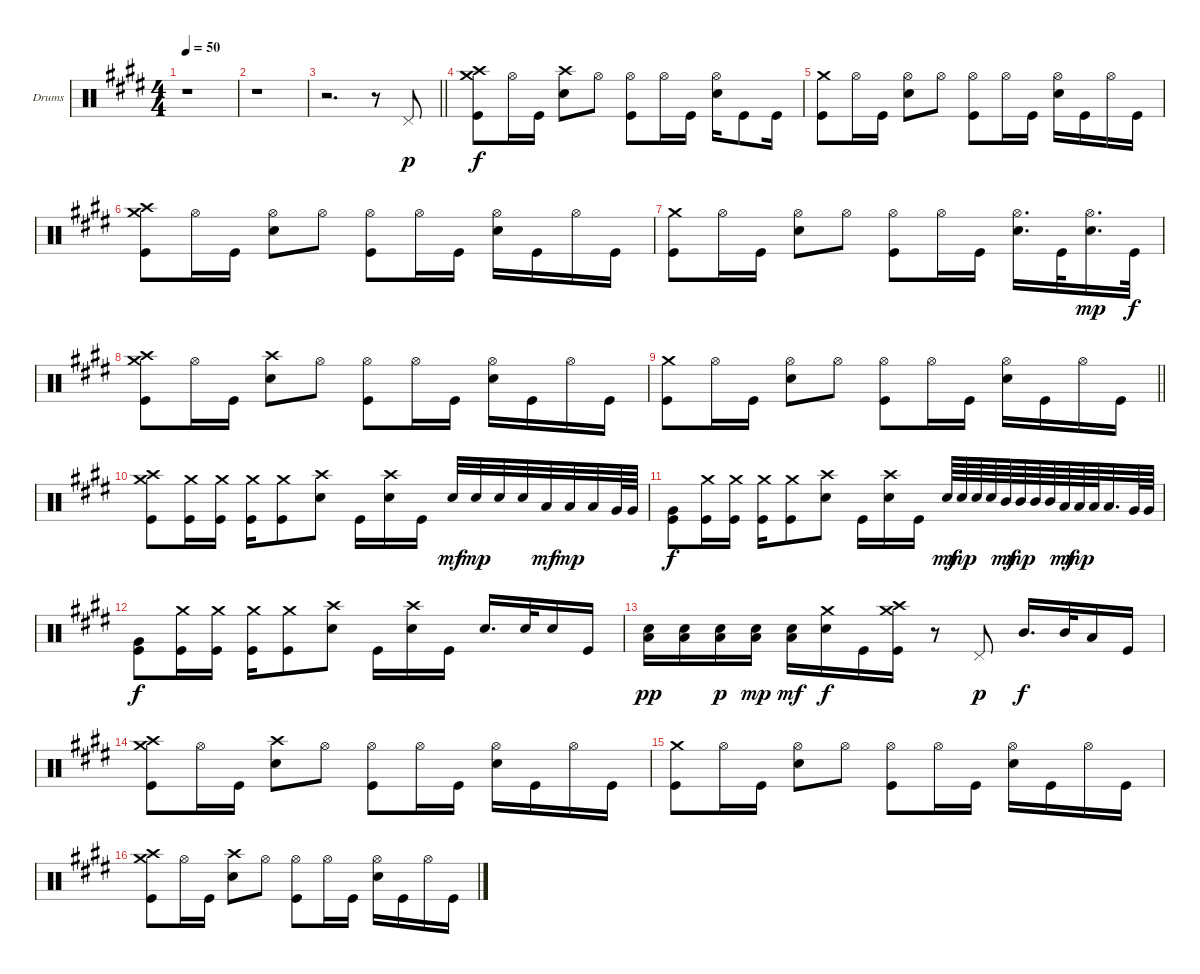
\bracketExtendMode groupsimilarinstruments
\firstSystemTrackNameOrientation horizontal
\otherSystemsTrackNameOrientation horizontal
\track ("Drumkit" "Drums") {instrument percussion}
\staff {score}
\articulation defaults
\ts (4 4)
\tempo 50
\clef neutral
\ks c#minor
r.1{dy p} |
r.1 |
\barLineRight lightlight
r.2{d} r.8 "Pedal Hi-Hat (hit)".8 |
("Crash medium (hit)" "Crash high (hit)" "Kick (hit)").8{dy f} "Hi-Hat (open)".16 "Kick (hit)".16 ("Crash high (hit)" "Snare (hit) 2").8 "Hi-Hat (open)".8 ("Hi-Hat (open)" "Kick (hit)").8 "Hi-Hat (open)".16 "Kick (hit)".16 ("Hi-Hat (open)" "Snare (hit) 2").16 "Kick (hit)".8 "Kick (hit)".16 |
("Crash medium (hit)" "Kick (hit)").8 "Hi-Hat (open)".16 "Kick (hit)".16 ("Hi-Hat (open)" "Snare (hit) 2").8 "Hi-Hat (open)".8 ("Hi-Hat (open)" "Kick (hit)").8 "Hi-Hat (open)".16 "Kick (hit)".16 ("Hi-Hat (open)" "Snare (hit) 2").16 "Kick (hit)".16 "Hi-Hat (open)".16 "Kick (hit)".16 |
("Crash medium (hit)" "Crash high (hit)" "Kick (hit)").8 "Hi-Hat (open)".16 "Kick (hit)".16 ("Hi-Hat (open)" "Snare (hit) 2").8 "Hi-Hat (open)".8 ("Hi-Hat (open)" "Kick (hit)").8 "Hi-Hat (open)".16 "Kick (hit)".16 ("Hi-Hat (open)" "Snare (hit) 2").16 "Kick (hit)".16 "Hi-Hat (open)".16 "Kick (hit)".16 |
("Crash medium (hit)" "Kick (hit)").8 "Hi-Hat (open)".16 "Kick (hit)".16 ("Hi-Hat (open)" "Snare (hit) 2").8 "Hi-Hat (open)".8 ("Hi-Hat (open)" "Kick (hit)").8 "Hi-Hat (open)".16 "Kick (hit)".16 ("Hi-Hat (open)" "Snare (hit) 2").16{d} "Kick (hit)".32 ("Hi-Hat (open)" "Snare (hit) 2").16{d dy mp} "Kick (hit)".32{dy f} |
("Crash medium (hit)" "Crash high (hit)" "Kick (hit)").8 "Hi-Hat (open)".16 "Kick (hit)".16 ("Crash high (hit)" "Snare (hit) 2").8 "Hi-Hat (open)".8 ("Hi-Hat (open)" "Kick (hit)").8 "Hi-Hat (open)".16 "Kick (hit)".16 ("Hi-Hat (open)" "Snare (hit) 2").16 "Kick (hit)".16 "Hi-Hat (open)".16 "Kick (hit)".16 |
\barLineRight lightlight
("Crash medium (hit)" "Kick (hit)").8 "Hi-Hat (open)".16 "Kick (hit)".16 ("Hi-Hat (open)" "Snare (hit) 2").8 "Hi-Hat (open)".8 ("Hi-Hat (open)" "Kick (hit)").8 "Hi-Hat (open)".16 "Kick (hit)".16 ("Hi-Hat (open)" "Snare (hit) 2").16 "Kick (hit)".16 "Hi-Hat (open)".16 "Kick (hit)".16 |
("Crash medium (hit)" "Crash high (hit)" "Kick (hit)").8 ("Crash medium (hit)" "Kick (hit)").16 ("Crash medium (hit)" "Kick (hit)").16 ("Crash medium (hit)" "Kick (hit)").16 ("Crash medium (hit)" "Kick (hit)").8 ("Crash high (hit)" "Snare (hit) 2").8 "Kick (hit)".16 ("Crash high (hit)" "Snare (hit) 2").16 "Kick (hit)".16 "Snare (hit) 2".32{dy mf} "Snare (hit) 2".32{dy mp} "Snare (hit) 2".32 "Snare (hit) 2".32 "Low Tom (hit)".32{dy mf} "Low Tom (hit)".32{dy mp} "Low Tom (hit)".32 "Very Low Tom (hit)".64 "Very Low Tom (hit)".64 |
("Very Low Tom (hit)" "Kick (hit)").8{dy f} ("Crash medium (hit)" "Kick (hit)").16 ("Crash medium (hit)" "Kick (hit)").16 ("Crash medium (hit)" "Kick (hit)").16 ("Crash medium (hit)" "Kick (hit)").8 ("Crash high (hit)" "Snare (hit) 2").8 "Kick (hit)".16 ("Crash high (hit)" "Snare (hit) 2").16 "Kick (hit)".16 "Snare (hit) 2".64{dy mf} "Snare (hit) 2".64{dy mp} "Snare (hit) 2".64 "Snare (hit) 2".64 "Mid Tom (hit)".64{dy mf} "Mid Tom (hit)".64{dy mp} "Mid Tom (hit)".64 "Mid Tom (hit)".64 "Low Tom (hit)".64{dy mf} "Low Tom (hit)".64{dy mp} "Low Tom (hit)".64 "Low Tom (hit)".32{d} "Very Low Tom (hit)".64 "Very Low Tom (hit)".64 |
("Very Low Tom (hit)" "Kick (hit)").8{dy f} ("Crash medium (hit)" "Kick (hit)").16 ("Crash medium (hit)" "Kick (hit)").16 ("Crash medium (hit)" "Kick (hit)").16 ("Crash medium (hit)" "Kick (hit)").8 ("Crash high (hit)" "Snare (hit) 2").8 "Kick (hit)".16 ("Crash high (hit)" "Snare (hit) 2").16 "Kick (hit)".16 "Snare (hit) 2".16{d} "Snare (hit) 2".32 "Snare (hit) 2".16 "Kick (hit)".16 |
("Snare (hit) 2" "Low Tom (hit)").16{dy pp} ("Snare (hit) 2" "Low Tom (hit)").16 ("Snare (hit) 2" "Low Tom (hit)").16{dy p} ("Snare (hit) 2" "Low Tom (hit)").16{dy mp} ("Snare (hit) 2" "Low Tom (hit)").16{dy mf} ("Crash medium (hit)" "Snare (hit) 2").16{dy f} "Kick (hit)".16 ("Crash medium (hit)" "Crash high (hit)" "Kick (hit)").16 r.8 "Pedal Hi-Hat (hit)".8{dy p} "Mid Tom (hit)".16{d dy f} "Mid Tom (hit)".32 "Low Tom (hit)".16 "Kick (hit)".16 |
("Crash medium (hit)" "Crash high (hit)" "Kick (hit)").8 "Hi-Hat (open)".16 "Kick (hit)".16 ("Crash high (hit)" "Snare (hit) 2").8 "Hi-Hat (open)".8 ("Hi-Hat (open)" "Kick (hit)").8 "Hi-Hat (open)".16 "Kick (hit)".16 ("Hi-Hat (open)" "Snare (hit) 2").16 "Kick (hit)".16 "Hi-Hat (open)".16 "Kick (hit)".16 |
("Crash medium (hit)" "Kick (hit)").8 "Hi-Hat (open)".16 "Kick (hit)".16 ("Hi-Hat (open)" "Snare (hit) 2").8 "Hi-Hat (open)".8 ("Hi-Hat (open)" "Kick (hit)").8 "Hi-Hat (open)".16 "Kick (hit)".16 ("Hi-Hat (open)" "Snare (hit) 2").16 "Kick (hit)".16 "Hi-Hat (open)".16 "Kick (hit)".16 |
("Crash medium (hit)" "Crash high (hit)" "Kick (hit)").8 "Hi-Hat (open)".16 "Kick (hit)".16 ("Crash high (hit)" "Snare (hit) 2").8 "Hi-Hat (open)".8 ("Hi-Hat (open)" "Kick (hit)").8 "Hi-Hat (open)".16 "Kick (hit)".16 ("Hi-Hat (open)" "Snare (hit) 2").16 "Kick (hit)".16 "Hi-Hat (open)".16 "Kick (hit)".16
